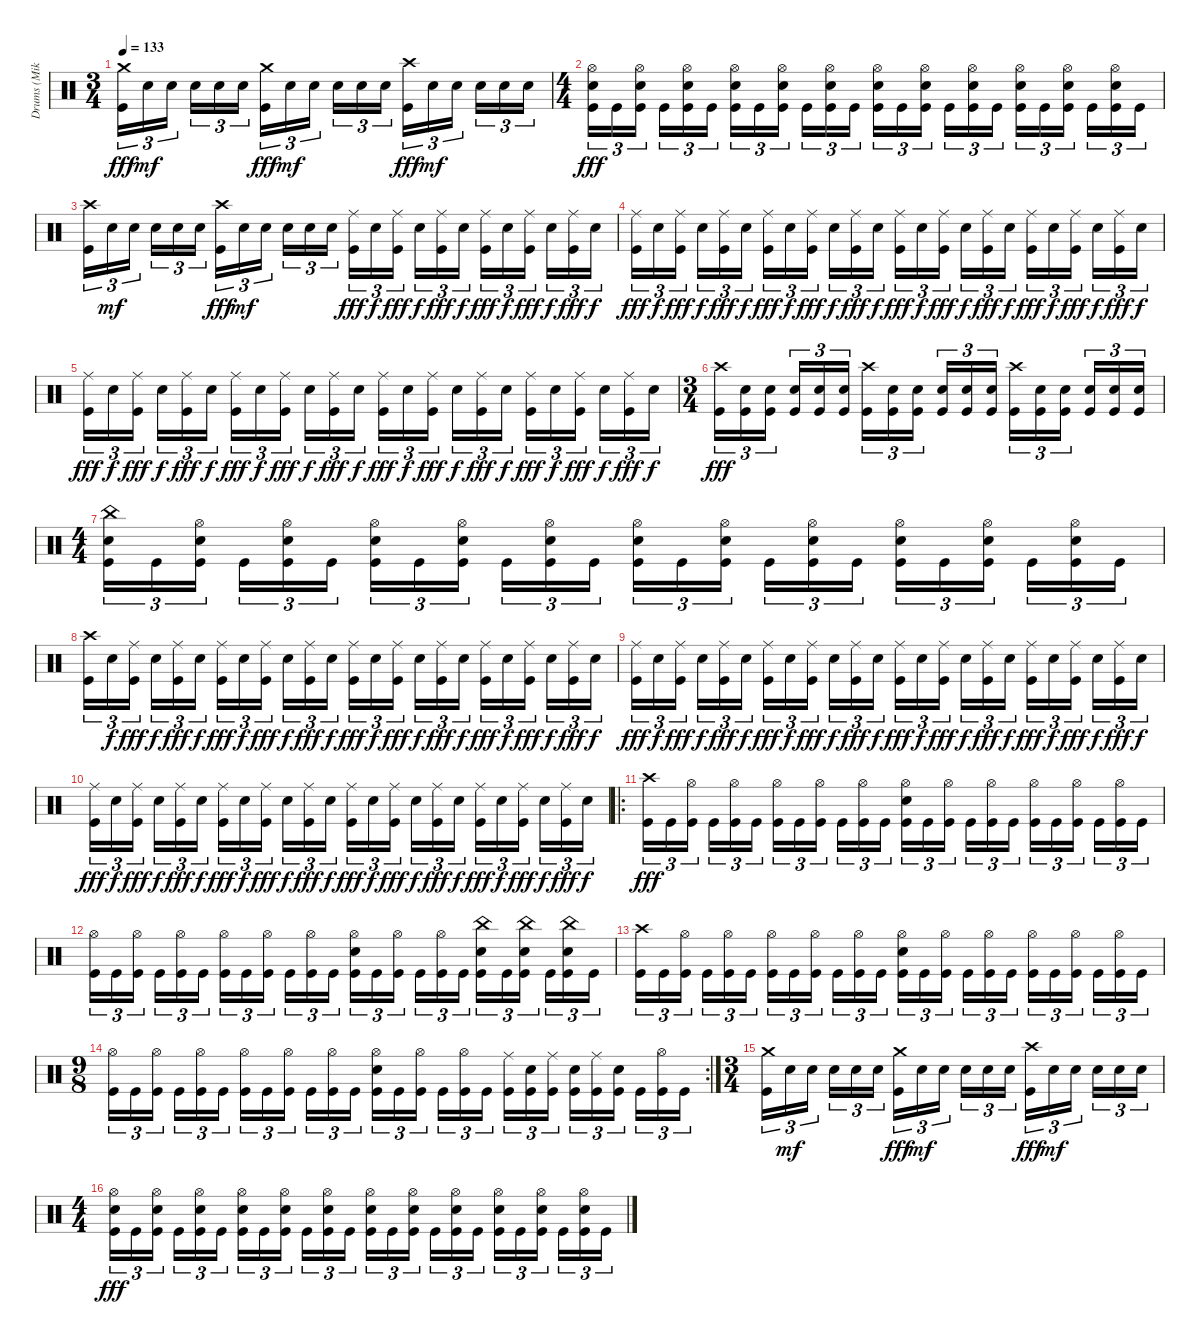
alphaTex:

\track ("Drums (Mike)" "Drums (Mik") {instrument percussion}
\staff {score}
\articulation defaults
\ts (3 4)
\tempo 133
\clef neutral
\ks c
("Crash medium (hit)" "Kick (hit)").16{tu (3 2) dy fff} "Electric Snare (hit)".16{tu (3 2) dy mf} "Electric Snare (hit)".16{tu (3 2)} "Electric Snare (hit)".16{tu (3 2)} "Electric Snare (hit)".16{tu (3 2)} "Electric Snare (hit)".16{tu (3 2)} ("Crash medium (hit)" "Kick (hit)").16{tu (3 2) dy fff} "Electric Snare (hit)".16{tu (3 2) dy mf} "Electric Snare (hit)".16{tu (3 2)} "Electric Snare (hit)".16{tu (3 2)} "Electric Snare (hit)".16{tu (3 2)} "Electric Snare (hit)".16{tu (3 2)} ("Crash high (hit)" "Kick (hit)").16{tu (3 2) dy fff} "Electric Snare (hit)".16{tu (3 2) dy mf} "Electric Snare (hit)".16{tu (3 2)} "Electric Snare (hit)".16{tu (3 2)} "Electric Snare (hit)".16{tu (3 2)} "Electric Snare (hit)".16{tu (3 2)} |
\ts (4 4)
("Hi-Hat (open)" "Electric Snare (hit)" "Kick (hit)").16{tu (3 2) dy fff} "Kick (hit)".16{tu (3 2)} ("Hi-Hat (open)" "Electric Snare (hit)" "Kick (hit)").16{tu (3 2)} "Kick (hit)".16{tu (3 2)} ("Hi-Hat (open)" "Electric Snare (hit)" "Kick (hit)").16{tu (3 2)} "Kick (hit)".16{tu (3 2)} ("Hi-Hat (open)" "Electric Snare (hit)" "Kick (hit)").16{tu (3 2)} "Kick (hit)".16{tu (3 2)} ("Hi-Hat (open)" "Electric Snare (hit)" "Kick (hit)").16{tu (3 2)} "Kick (hit)".16{tu (3 2)} ("Hi-Hat (open)" "Electric Snare (hit)" "Kick (hit)").16{tu (3 2)} "Kick (hit)".16{tu (3 2)} ("Hi-Hat (open)" "Electric Snare (hit)" "Kick (hit)").16{tu (3 2)} "Kick (hit)".16{tu (3 2)} ("Hi-Hat (open)" "Electric Snare (hit)" "Kick (hit)").16{tu (3 2)} "Kick (hit)".16{tu (3 2)} ("Hi-Hat (open)" "Electric Snare (hit)" "Kick (hit)").16{tu (3 2)} "Kick (hit)".16{tu (3 2)} ("Hi-Hat (open)" "Electric Snare (hit)" "Kick (hit)").16{tu (3 2)} "Kick (hit)".16{tu (3 2)} ("Hi-Hat (open)" "Electric Snare (hit)" "Kick (hit)").16{tu (3 2)} "Kick (hit)".16{tu (3 2)} ("Hi-Hat (open)" "Electric Snare (hit)" "Kick (hit)").16{tu (3 2)} "Kick (hit)".16{tu (3 2)} |
("Crash high (hit)" "Kick (hit)").16{tu (3 2)} "Electric Snare (hit)".16{tu (3 2) dy mf} "Electric Snare (hit)".16{tu (3 2)} "Electric Snare (hit)".16{tu (3 2)} "Electric Snare (hit)".16{tu (3 2)} "Electric Snare (hit)".16{tu (3 2)} ("Crash high (hit)" "Kick (hit)").16{tu (3 2) dy fff} "Electric Snare (hit)".16{tu (3 2) dy mf} "Electric Snare (hit)".16{tu (3 2)} "Electric Snare (hit)".16{tu (3 2)} "Electric Snare (hit)".16{tu (3 2)} "Electric Snare (hit)".16{tu (3 2)} ("Ride (middle)" "Kick (hit)").16{tu (3 2) dy fff} "Electric Snare (hit)".16{tu (3 2) dy f} ("Ride (middle)" "Kick (hit)").16{tu (3 2) dy fff} "Electric Snare (hit)".16{tu (3 2) dy f} ("Ride (middle)" "Kick (hit)").16{tu (3 2) dy fff} "Electric Snare (hit)".16{tu (3 2) dy f} ("Ride (middle)" "Kick (hit)").16{tu (3 2) dy fff} "Electric Snare (hit)".16{tu (3 2) dy f} ("Ride (middle)" "Kick (hit)").16{tu (3 2) dy fff} "Electric Snare (hit)".16{tu (3 2) dy f} ("Ride (middle)" "Kick (hit)").16{tu (3 2) dy fff} "Electric Snare (hit)".16{tu (3 2) dy f} |
("Ride (middle)" "Kick (hit)").16{tu (3 2) dy fff} "Electric Snare (hit)".16{tu (3 2) dy f} ("Ride (middle)" "Kick (hit)").16{tu (3 2) dy fff} "Electric Snare (hit)".16{tu (3 2) dy f} ("Ride (middle)" "Kick (hit)").16{tu (3 2) dy fff} "Electric Snare (hit)".16{tu (3 2) dy f} ("Ride (middle)" "Kick (hit)").16{tu (3 2) dy fff} "Electric Snare (hit)".16{tu (3 2) dy f} ("Ride (middle)" "Kick (hit)").16{tu (3 2) dy fff} "Electric Snare (hit)".16{tu (3 2) dy f} ("Ride (middle)" "Kick (hit)").16{tu (3 2) dy fff} "Electric Snare (hit)".16{tu (3 2) dy f} ("Ride (middle)" "Kick (hit)").16{tu (3 2) dy fff} "Electric Snare (hit)".16{tu (3 2) dy f} ("Ride (middle)" "Kick (hit)").16{tu (3 2) dy fff} "Electric Snare (hit)".16{tu (3 2) dy f} ("Ride (middle)" "Kick (hit)").16{tu (3 2) dy fff} "Electric Snare (hit)".16{tu (3 2) dy f} ("Ride (middle)" "Kick (hit)").16{tu (3 2) dy fff} "Electric Snare (hit)".16{tu (3 2) dy f} ("Ride (middle)" "Kick (hit)").16{tu (3 2) dy fff} "Electric Snare (hit)".16{tu (3 2) dy f} ("Ride (middle)" "Kick (hit)").16{tu (3 2) dy fff} "Electric Snare (hit)".16{tu (3 2) dy f} |
("Ride (middle)" "Kick (hit)").16{tu (3 2) dy fff} "Electric Snare (hit)".16{tu (3 2) dy f} ("Ride (middle)" "Kick (hit)").16{tu (3 2) dy fff} "Electric Snare (hit)".16{tu (3 2) dy f} ("Ride (middle)" "Kick (hit)").16{tu (3 2) dy fff} "Electric Snare (hit)".16{tu (3 2) dy f} ("Ride (middle)" "Kick (hit)").16{tu (3 2) dy fff} "Electric Snare (hit)".16{tu (3 2) dy f} ("Ride (middle)" "Kick (hit)").16{tu (3 2) dy fff} "Electric Snare (hit)".16{tu (3 2) dy f} ("Ride (middle)" "Kick (hit)").16{tu (3 2) dy fff} "Electric Snare (hit)".16{tu (3 2) dy f} ("Ride (middle)" "Kick (hit)").16{tu (3 2) dy fff} "Electric Snare (hit)".16{tu (3 2) dy f} ("Ride (middle)" "Kick (hit)").16{tu (3 2) dy fff} "Electric Snare (hit)".16{tu (3 2) dy f} ("Ride (middle)" "Kick (hit)").16{tu (3 2) dy fff} "Electric Snare (hit)".16{tu (3 2) dy f} ("Ride (middle)" "Kick (hit)").16{tu (3 2) dy fff} "Electric Snare (hit)".16{tu (3 2) dy f} ("Ride (middle)" "Kick (hit)").16{tu (3 2) dy fff} "Electric Snare (hit)".16{tu (3 2) dy f} ("Ride (middle)" "Kick (hit)").16{tu (3 2) dy fff} "Electric Snare (hit)".16{tu (3 2) dy f} |
\ts (3 4)
("Crash high (hit)" "Kick (hit)").16{tu (3 2) dy fff} ("Electric Snare (hit)" "Kick (hit)").16{tu (3 2)} ("Electric Snare (hit)" "Kick (hit)").16{tu (3 2)} ("Electric Snare (hit)" "Kick (hit)").16{tu (3 2)} ("Electric Snare (hit)" "Kick (hit)").16{tu (3 2)} ("Electric Snare (hit)" "Kick (hit)").16{tu (3 2)} ("Crash high (hit)" "Kick (hit)").16{tu (3 2)} ("Electric Snare (hit)" "Kick (hit)").16{tu (3 2)} ("Electric Snare (hit)" "Kick (hit)").16{tu (3 2)} ("Electric Snare (hit)" "Kick (hit)").16{tu (3 2)} ("Electric Snare (hit)" "Kick (hit)").16{tu (3 2)} ("Electric Snare (hit)" "Kick (hit)").16{tu (3 2)} ("Crash high (hit)" "Kick (hit)").16{tu (3 2)} ("Electric Snare (hit)" "Kick (hit)").16{tu (3 2)} ("Electric Snare (hit)" "Kick (hit)").16{tu (3 2)} ("Electric Snare (hit)" "Kick (hit)").16{tu (3 2)} ("Electric Snare (hit)" "Kick (hit)").16{tu (3 2)} ("Electric Snare (hit)" "Kick (hit)").16{tu (3 2)} |
\ts (4 4)
("China (hit)" "Electric Snare (hit)" "Kick (hit)").16{tu (3 2)} "Kick (hit)".16{tu (3 2)} ("Hi-Hat (open)" "Electric Snare (hit)" "Kick (hit)").16{tu (3 2)} "Kick (hit)".16{tu (3 2)} ("Hi-Hat (open)" "Electric Snare (hit)" "Kick (hit)").16{tu (3 2)} "Kick (hit)".16{tu (3 2)} ("Hi-Hat (open)" "Electric Snare (hit)" "Kick (hit)").16{tu (3 2)} "Kick (hit)".16{tu (3 2)} ("Hi-Hat (open)" "Electric Snare (hit)" "Kick (hit)").16{tu (3 2)} "Kick (hit)".16{tu (3 2)} ("Hi-Hat (open)" "Electric Snare (hit)" "Kick (hit)").16{tu (3 2)} "Kick (hit)".16{tu (3 2)} ("Hi-Hat (open)" "Electric Snare (hit)" "Kick (hit)").16{tu (3 2)} "Kick (hit)".16{tu (3 2)} ("Hi-Hat (open)" "Electric Snare (hit)" "Kick (hit)").16{tu (3 2)} "Kick (hit)".16{tu (3 2)} ("Hi-Hat (open)" "Electric Snare (hit)" "Kick (hit)").16{tu (3 2)} "Kick (hit)".16{tu (3 2)} ("Hi-Hat (open)" "Electric Snare (hit)" "Kick (hit)").16{tu (3 2)} "Kick (hit)".16{tu (3 2)} ("Hi-Hat (open)" "Electric Snare (hit)" "Kick (hit)").16{tu (3 2)} "Kick (hit)".16{tu (3 2)} ("Hi-Hat (open)" "Electric Snare (hit)" "Kick (hit)").16{tu (3 2)} "Kick (hit)".16{tu (3 2)} |
("Crash high (hit)" "Kick (hit)").16{tu (3 2)} "Electric Snare (hit)".16{tu (3 2) dy f} ("Ride (middle)" "Kick (hit)").16{tu (3 2) dy fff} "Electric Snare (hit)".16{tu (3 2) dy f} ("Ride (middle)" "Kick (hit)").16{tu (3 2) dy fff} "Electric Snare (hit)".16{tu (3 2) dy f} ("Ride (middle)" "Kick (hit)").16{tu (3 2) dy fff} "Electric Snare (hit)".16{tu (3 2) dy f} ("Ride (middle)" "Kick (hit)").16{tu (3 2) dy fff} "Electric Snare (hit)".16{tu (3 2) dy f} ("Ride (middle)" "Kick (hit)").16{tu (3 2) dy fff} "Electric Snare (hit)".16{tu (3 2) dy f} ("Ride (middle)" "Kick (hit)").16{tu (3 2) dy fff} "Electric Snare (hit)".16{tu (3 2) dy f} ("Ride (middle)" "Kick (hit)").16{tu (3 2) dy fff} "Electric Snare (hit)".16{tu (3 2) dy f} ("Ride (middle)" "Kick (hit)").16{tu (3 2) dy fff} "Electric Snare (hit)".16{tu (3 2) dy f} ("Ride (middle)" "Kick (hit)").16{tu (3 2) dy fff} "Electric Snare (hit)".16{tu (3 2) dy f} ("Ride (middle)" "Kick (hit)").16{tu (3 2) dy fff} "Electric Snare (hit)".16{tu (3 2) dy f} ("Ride (middle)" "Kick (hit)").16{tu (3 2) dy fff} "Electric Snare (hit)".16{tu (3 2) dy f} |
("Ride (middle)" "Kick (hit)").16{tu (3 2) dy fff} "Electric Snare (hit)".16{tu (3 2) dy f} ("Ride (middle)" "Kick (hit)").16{tu (3 2) dy fff} "Electric Snare (hit)".16{tu (3 2) dy f} ("Ride (middle)" "Kick (hit)").16{tu (3 2) dy fff} "Electric Snare (hit)".16{tu (3 2) dy f} ("Ride (middle)" "Kick (hit)").16{tu (3 2) dy fff} "Electric Snare (hit)".16{tu (3 2) dy f} ("Ride (middle)" "Kick (hit)").16{tu (3 2) dy fff} "Electric Snare (hit)".16{tu (3 2) dy f} ("Ride (middle)" "Kick (hit)").16{tu (3 2) dy fff} "Electric Snare (hit)".16{tu (3 2) dy f} ("Ride (middle)" "Kick (hit)").16{tu (3 2) dy fff} "Electric Snare (hit)".16{tu (3 2) dy f} ("Ride (middle)" "Kick (hit)").16{tu (3 2) dy fff} "Electric Snare (hit)".16{tu (3 2) dy f} ("Ride (middle)" "Kick (hit)").16{tu (3 2) dy fff} "Electric Snare (hit)".16{tu (3 2) dy f} ("Ride (middle)" "Kick (hit)").16{tu (3 2) dy fff} "Electric Snare (hit)".16{tu (3 2) dy f} ("Ride (middle)" "Kick (hit)").16{tu (3 2) dy fff} "Electric Snare (hit)".16{tu (3 2) dy f} ("Ride (middle)" "Kick (hit)").16{tu (3 2) dy fff} "Electric Snare (hit)".16{tu (3 2) dy f} |
("Ride (middle)" "Kick (hit)").16{tu (3 2) dy fff} "Electric Snare (hit)".16{tu (3 2) dy f} ("Ride (middle)" "Kick (hit)").16{tu (3 2) dy fff} "Electric Snare (hit)".16{tu (3 2) dy f} ("Ride (middle)" "Kick (hit)").16{tu (3 2) dy fff} "Electric Snare (hit)".16{tu (3 2) dy f} ("Ride (middle)" "Kick (hit)").16{tu (3 2) dy fff} "Electric Snare (hit)".16{tu (3 2) dy f} ("Ride (middle)" "Kick (hit)").16{tu (3 2) dy fff} "Electric Snare (hit)".16{tu (3 2) dy f} ("Ride (middle)" "Kick (hit)").16{tu (3 2) dy fff} "Electric Snare (hit)".16{tu (3 2) dy f} ("Ride (middle)" "Kick (hit)").16{tu (3 2) dy fff} "Electric Snare (hit)".16{tu (3 2) dy f} ("Ride (middle)" "Kick (hit)").16{tu (3 2) dy fff} "Electric Snare (hit)".16{tu (3 2) dy f} ("Ride (middle)" "Kick (hit)").16{tu (3 2) dy fff} "Electric Snare (hit)".16{tu (3 2) dy f} ("Ride (middle)" "Kick (hit)").16{tu (3 2) dy fff} "Electric Snare (hit)".16{tu (3 2) dy f} ("Ride (middle)" "Kick (hit)").16{tu (3 2) dy fff} "Electric Snare (hit)".16{tu (3 2) dy f} ("Ride (middle)" "Kick (hit)").16{tu (3 2) dy fff} "Electric Snare (hit)".16{tu (3 2) dy f} |
\ro
("Crash high (hit)" "Kick (hit)").16{tu (3 2) dy fff} "Kick (hit)".16{tu (3 2)} ("Hi-Hat (open)" "Kick (hit)").16{tu (3 2)} "Kick (hit)".16{tu (3 2)} ("Hi-Hat (open)" "Kick (hit)").16{tu (3 2)} "Kick (hit)".16{tu (3 2)} ("Hi-Hat (open)" "Kick (hit)").16{tu (3 2)} "Kick (hit)".16{tu (3 2)} ("Hi-Hat (open)" "Kick (hit)").16{tu (3 2)} "Kick (hit)".16{tu (3 2)} ("Hi-Hat (open)" "Kick (hit)").16{tu (3 2)} "Kick (hit)".16{tu (3 2)} ("Hi-Hat (open)" "Electric Snare (hit)" "Kick (hit)").16{tu (3 2)} "Kick (hit)".16{tu (3 2)} ("Hi-Hat (open)" "Kick (hit)").16{tu (3 2)} "Kick (hit)".16{tu (3 2)} ("Hi-Hat (open)" "Kick (hit)").16{tu (3 2)} "Kick (hit)".16{tu (3 2)} ("Hi-Hat (open)" "Kick (hit)").16{tu (3 2)} "Kick (hit)".16{tu (3 2)} ("Hi-Hat (open)" "Kick (hit)").16{tu (3 2)} "Kick (hit)".16{tu (3 2)} ("Hi-Hat (open)" "Kick (hit)").16{tu (3 2)} "Kick (hit)".16{tu (3 2)} |
("Hi-Hat (open)" "Kick (hit)").16{tu (3 2)} "Kick (hit)".16{tu (3 2)} ("Hi-Hat (open)" "Kick (hit)").16{tu (3 2)} "Kick (hit)".16{tu (3 2)} ("Hi-Hat (open)" "Kick (hit)").16{tu (3 2)} "Kick (hit)".16{tu (3 2)} ("Hi-Hat (open)" "Kick (hit)").16{tu (3 2)} "Kick (hit)".16{tu (3 2)} ("Hi-Hat (open)" "Kick (hit)").16{tu (3 2)} "Kick (hit)".16{tu (3 2)} ("Hi-Hat (open)" "Kick (hit)").16{tu (3 2)} "Kick (hit)".16{tu (3 2)} ("Hi-Hat (open)" "Electric Snare (hit)" "Kick (hit)").16{tu (3 2)} "Kick (hit)".16{tu (3 2)} ("Hi-Hat (open)" "Kick (hit)").16{tu (3 2)} "Kick (hit)".16{tu (3 2)} ("Hi-Hat (open)" "Kick (hit)").16{tu (3 2)} "Kick (hit)".16{tu (3 2)} ("China (hit)" "Electric Snare (hit)" "Kick (hit)").16{tu (3 2)} "Kick (hit)".16{tu (3 2)} ("China (hit)" "Electric Snare (hit)" "Kick (hit)").16{tu (3 2)} "Kick (hit)".16{tu (3 2)} ("China (hit)" "Electric Snare (hit)" "Kick (hit)").16{tu (3 2)} "Kick (hit)".16{tu (3 2)} |
("Crash high (hit)" "Kick (hit)").16{tu (3 2)} "Kick (hit)".16{tu (3 2)} ("Hi-Hat (open)" "Kick (hit)").16{tu (3 2)} "Kick (hit)".16{tu (3 2)} ("Hi-Hat (open)" "Kick (hit)").16{tu (3 2)} "Kick (hit)".16{tu (3 2)} ("Hi-Hat (open)" "Kick (hit)").16{tu (3 2)} "Kick (hit)".16{tu (3 2)} ("Hi-Hat (open)" "Kick (hit)").16{tu (3 2)} "Kick (hit)".16{tu (3 2)} ("Hi-Hat (open)" "Kick (hit)").16{tu (3 2)} "Kick (hit)".16{tu (3 2)} ("Hi-Hat (open)" "Electric Snare (hit)" "Kick (hit)").16{tu (3 2)} "Kick (hit)".16{tu (3 2)} ("Hi-Hat (open)" "Kick (hit)").16{tu (3 2)} "Kick (hit)".16{tu (3 2)} ("Hi-Hat (open)" "Kick (hit)").16{tu (3 2)} "Kick (hit)".16{tu (3 2)} ("Hi-Hat (open)" "Kick (hit)").16{tu (3 2)} "Kick (hit)".16{tu (3 2)} ("Hi-Hat (open)" "Kick (hit)").16{tu (3 2)} "Kick (hit)".16{tu (3 2)} ("Hi-Hat (open)" "Kick (hit)").16{tu (3 2)} "Kick (hit)".16{tu (3 2)} |
\rc 2
\ts (9 8)
("Hi-Hat (open)" "Kick (hit)").16{tu (3 2)} "Kick (hit)".16{tu (3 2)} ("Hi-Hat (open)" "Kick (hit)").16{tu (3 2)} "Kick (hit)".16{tu (3 2)} ("Hi-Hat (open)" "Kick (hit)").16{tu (3 2)} "Kick (hit)".16{tu (3 2)} ("Hi-Hat (open)" "Kick (hit)").16{tu (3 2)} "Kick (hit)".16{tu (3 2)} ("Hi-Hat (open)" "Kick (hit)").16{tu (3 2)} "Kick (hit)".16{tu (3 2)} ("Hi-Hat (open)" "Kick (hit)").16{tu (3 2)} "Kick (hit)".16{tu (3 2)} ("Hi-Hat (open)" "Electric Snare (hit)" "Kick (hit)").16{tu (3 2)} "Kick (hit)".16{tu (3 2)} ("Hi-Hat (open)" "Kick (hit)").16{tu (3 2)} "Kick (hit)".16{tu (3 2)} ("Hi-Hat (open)" "Kick (hit)").16{tu (3 2)} "Kick (hit)".16{tu (3 2)} ("Ride (middle)" "Kick (hit)").16{tu (3 2)} ("Electric Snare (hit)" "Kick (hit)").16{tu (3 2)} ("Ride (middle)" "Kick (hit)").16{tu (3 2)} ("Electric Snare (hit)" "Kick (hit)").16{tu (3 2)} ("Ride (middle)" "Kick (hit)").16{tu (3 2)} ("Electric Snare (hit)" "Kick (hit)").16{tu (3 2)} "Kick (hit)".16{tu (3 2)} ("Hi-Hat (open)" "Kick (hit)").16{tu (3 2)} "Kick (hit)".16{tu (3 2)} |
\ts (3 4)
("Crash medium (hit)" "Kick (hit)").16{tu (3 2)} "Electric Snare (hit)".16{tu (3 2) dy mf} "Electric Snare (hit)".16{tu (3 2)} "Electric Snare (hit)".16{tu (3 2)} "Electric Snare (hit)".16{tu (3 2)} "Electric Snare (hit)".16{tu (3 2)} ("Crash medium (hit)" "Kick (hit)").16{tu (3 2) dy fff} "Electric Snare (hit)".16{tu (3 2) dy mf} "Electric Snare (hit)".16{tu (3 2)} "Electric Snare (hit)".16{tu (3 2)} "Electric Snare (hit)".16{tu (3 2)} "Electric Snare (hit)".16{tu (3 2)} ("Crash high (hit)" "Kick (hit)").16{tu (3 2) dy fff} "Electric Snare (hit)".16{tu (3 2) dy mf} "Electric Snare (hit)".16{tu (3 2)} "Electric Snare (hit)".16{tu (3 2)} "Electric Snare (hit)".16{tu (3 2)} "Electric Snare (hit)".16{tu (3 2)} |
\ts (4 4)
("Hi-Hat (open)" "Electric Snare (hit)" "Kick (hit)").16{tu (3 2) dy fff} "Kick (hit)".16{tu (3 2)} ("Hi-Hat (open)" "Electric Snare (hit)" "Kick (hit)").16{tu (3 2)} "Kick (hit)".16{tu (3 2)} ("Hi-Hat (open)" "Electric Snare (hit)" "Kick (hit)").16{tu (3 2)} "Kick (hit)".16{tu (3 2)} ("Hi-Hat (open)" "Electric Snare (hit)" "Kick (hit)").16{tu (3 2)} "Kick (hit)".16{tu (3 2)} ("Hi-Hat (open)" "Electric Snare (hit)" "Kick (hit)").16{tu (3 2)} "Kick (hit)".16{tu (3 2)} ("Hi-Hat (open)" "Electric Snare (hit)" "Kick (hit)").16{tu (3 2)} "Kick (hit)".16{tu (3 2)} ("Hi-Hat (open)" "Electric Snare (hit)" "Kick (hit)").16{tu (3 2)} "Kick (hit)".16{tu (3 2)} ("Hi-Hat (open)" "Electric Snare (hit)" "Kick (hit)").16{tu (3 2)} "Kick (hit)".16{tu (3 2)} ("Hi-Hat (open)" "Electric Snare (hit)" "Kick (hit)").16{tu (3 2)} "Kick (hit)".16{tu (3 2)} ("Hi-Hat (open)" "Electric Snare (hit)" "Kick (hit)").16{tu (3 2)} "Kick (hit)".16{tu (3 2)} ("Hi-Hat (open)" "Electric Snare (hit)" "Kick (hit)").16{tu (3 2)} "Kick (hit)".16{tu (3 2)} ("Hi-Hat (open)" "Electric Snare (hit)" "Kick (hit)").16{tu (3 2)} "Kick (hit)".16{tu (3 2)}
